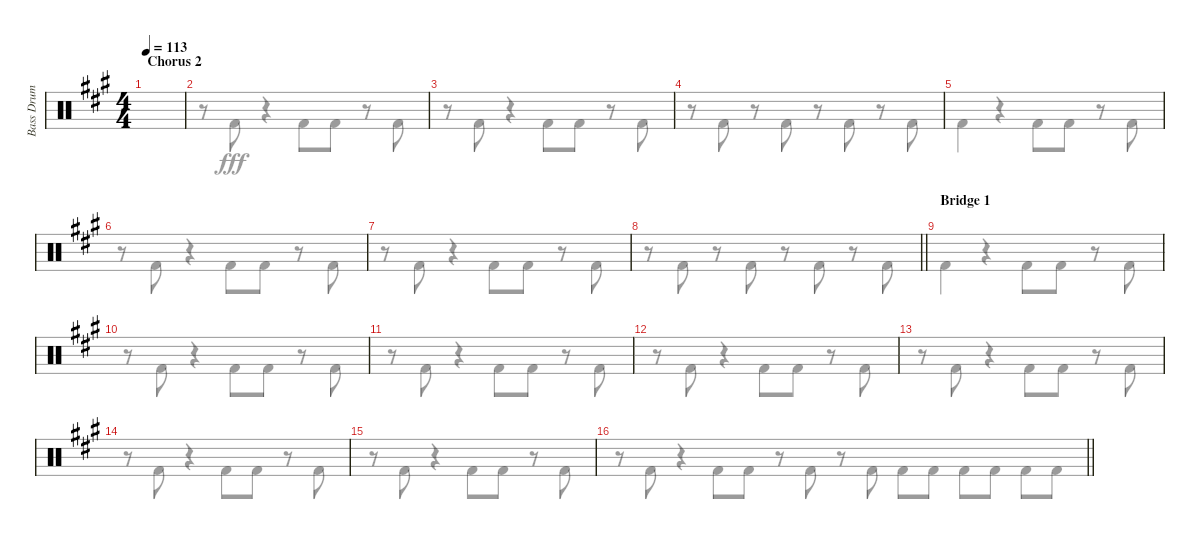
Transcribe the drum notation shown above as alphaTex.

\track ("Bass Drum" "Bass Drum") {instrument percussion}
\staff {score}
\articulation defaults
\voice
\ts (4 4)
\section ("" "Chorus 2")
\tempo 113
\clef neutral
\ks f#minor
|
|
|
|
|
|
|
\barLineRight lightlight
|
\section ("" "Bridge 1")
|
|
|
|
|
|
|
\barLineRight lightlight
\voice
\clef neutral
\ks f#minor
r.8{dy fff} "Kick (hit) 2".8 r.4 "Kick (hit) 2".8 "Kick (hit) 2".8 r.8 "Kick (hit) 2".8 |
r.8 "Kick (hit) 2".8 r.4 "Kick (hit) 2".8 "Kick (hit) 2".8 r.8 "Kick (hit) 2".8 |
r.8 "Kick (hit) 2".8 r.4 "Kick (hit) 2".8 "Kick (hit) 2".8 r.8 "Kick (hit) 2".8 |
r.8 "Kick (hit) 2".8 r.8 "Kick (hit) 2".8 r.8 "Kick (hit) 2".8 r.8 "Kick (hit) 2".8 |
"Kick (hit) 2".4 r.4 "Kick (hit) 2".8 "Kick (hit) 2".8 r.8 "Kick (hit) 2".8 |
r.8 "Kick (hit) 2".8 r.4 "Kick (hit) 2".8 "Kick (hit) 2".8 r.8 "Kick (hit) 2".8 |
r.8 "Kick (hit) 2".8 r.4 "Kick (hit) 2".8 "Kick (hit) 2".8 r.8 "Kick (hit) 2".8 |
\barLineRight lightlight
r.8 "Kick (hit) 2".8 r.8 "Kick (hit) 2".8 r.8 "Kick (hit) 2".8 r.8 "Kick (hit) 2".8 |
"Kick (hit) 2".4 r.4 "Kick (hit) 2".8 "Kick (hit) 2".8 r.8 "Kick (hit) 2".8 |
r.8 "Kick (hit) 2".8 r.4 "Kick (hit) 2".8 "Kick (hit) 2".8 r.8 "Kick (hit) 2".8 |
r.8 "Kick (hit) 2".8 r.4 "Kick (hit) 2".8 "Kick (hit) 2".8 r.8 "Kick (hit) 2".8 |
r.8 "Kick (hit) 2".8 r.4 "Kick (hit) 2".8 "Kick (hit) 2".8 r.8 "Kick (hit) 2".8 |
r.8 "Kick (hit) 2".8 r.4 "Kick (hit) 2".8 "Kick (hit) 2".8 r.8 "Kick (hit) 2".8 |
r.8 "Kick (hit) 2".8 r.4 "Kick (hit) 2".8 "Kick (hit) 2".8 r.8 "Kick (hit) 2".8 |
r.8 "Kick (hit) 2".8 r.4 "Kick (hit) 2".8 "Kick (hit) 2".8 r.8 "Kick (hit) 2".8 |
\barLineRight lightlight
r.8 "Kick (hit) 2".8 "Kick (hit) 2".8 "Kick (hit) 2".8 "Kick (hit) 2".8 "Kick (hit) 2".8 "Kick (hit) 2".8 "Kick (hit) 2".8
